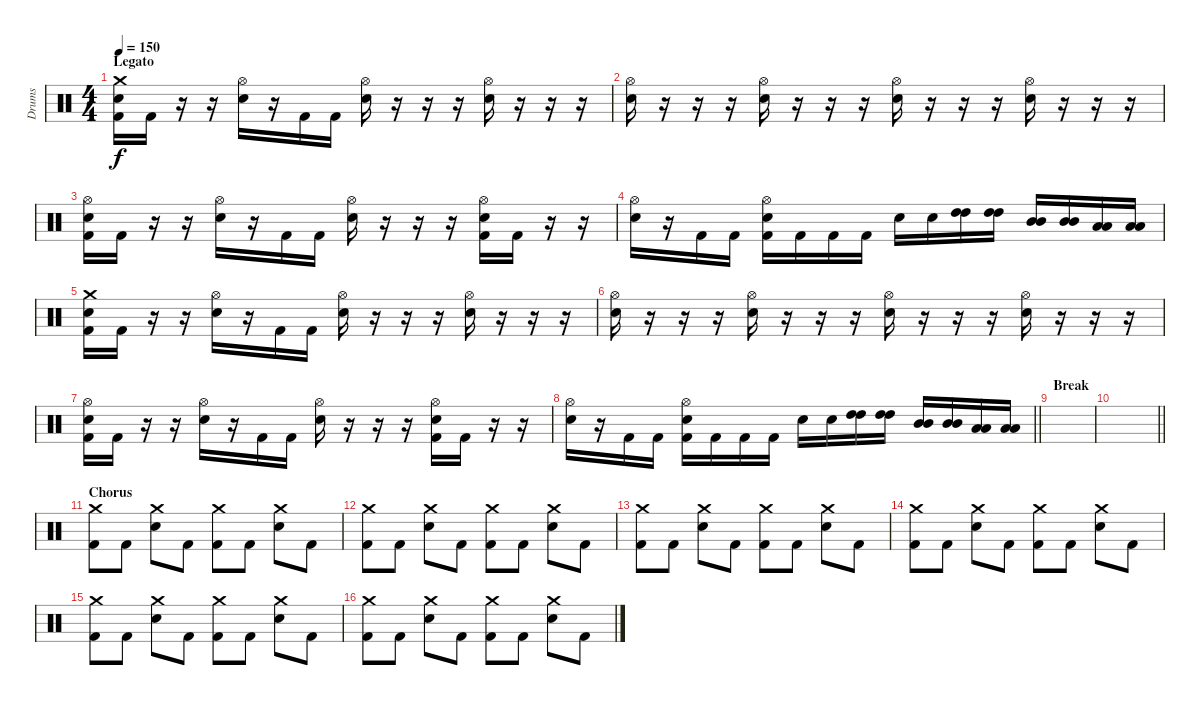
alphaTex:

\track ("Drums" "Drums") {instrument percussion}
\staff {score}
\articulation defaults
\ts (4 4)
\section ("" "Legato")
\tempo 150
\clef neutral
\ks c
("Crash medium (hit)" "Electric Snare (hit)" "Kick (hit) 2").16{dy f} "Kick (hit) 2".16 r.16 r.16 ("Hi-Hat (open)" "Electric Snare (hit)").16 r.16 "Kick (hit) 2".16 "Kick (hit) 2".16 ("Hi-Hat (open)" "Electric Snare (hit)").16 r.16 r.16 r.16 ("Hi-Hat (open)" "Electric Snare (hit)").16 r.16 r.16 r.16 |
("Hi-Hat (open)" "Electric Snare (hit)").16 r.16 r.16 r.16 ("Hi-Hat (open)" "Electric Snare (hit)").16 r.16 r.16 r.16 ("Hi-Hat (open)" "Electric Snare (hit)").16 r.16 r.16 r.16 ("Hi-Hat (open)" "Electric Snare (hit)").16 r.16 r.16 r.16 |
("Hi-Hat (open)" "Electric Snare (hit)" "Kick (hit) 2").16 "Kick (hit) 2".16 r.16 r.16 ("Hi-Hat (open)" "Electric Snare (hit)").16 r.16 "Kick (hit) 2".16 "Kick (hit) 2".16 ("Hi-Hat (open)" "Electric Snare (hit)").16 r.16 r.16 r.16 ("Hi-Hat (open)" "Electric Snare (hit)" "Kick (hit) 2").16 "Kick (hit) 2".16 r.16 r.16 |
("Hi-Hat (open)" "Electric Snare (hit)").16 r.16 "Kick (hit) 2".16 "Kick (hit) 2".16 ("Hi-Hat (open)" "Electric Snare (hit)" "Kick (hit) 2").16 "Kick (hit) 2".16 "Kick (hit) 2".16 "Kick (hit) 2".16 "Electric Snare (hit)".16 "Electric Snare (hit)".16 ("High Tom (hit)" "High Tom (hit)").16 ("High Tom (hit)" "High Tom (hit)").16 ("Mid Tom (hit)" "Mid Tom (hit)").16 ("Mid Tom (hit)" "Mid Tom (hit)").16 ("Low Tom (hit)" "Low Tom (hit)").16 ("Low Tom (hit)" "Low Tom (hit)").16 |
("Crash medium (hit)" "Electric Snare (hit)" "Kick (hit) 2").16 "Kick (hit) 2".16 r.16 r.16 ("Hi-Hat (open)" "Electric Snare (hit)").16 r.16 "Kick (hit) 2".16 "Kick (hit) 2".16 ("Hi-Hat (open)" "Electric Snare (hit)").16 r.16 r.16 r.16 ("Hi-Hat (open)" "Electric Snare (hit)").16 r.16 r.16 r.16 |
("Hi-Hat (open)" "Electric Snare (hit)").16 r.16 r.16 r.16 ("Hi-Hat (open)" "Electric Snare (hit)").16 r.16 r.16 r.16 ("Hi-Hat (open)" "Electric Snare (hit)").16 r.16 r.16 r.16 ("Hi-Hat (open)" "Electric Snare (hit)").16 r.16 r.16 r.16 |
("Hi-Hat (open)" "Electric Snare (hit)" "Kick (hit) 2").16 "Kick (hit) 2".16 r.16 r.16 ("Hi-Hat (open)" "Electric Snare (hit)").16 r.16 "Kick (hit) 2".16 "Kick (hit) 2".16 ("Hi-Hat (open)" "Electric Snare (hit)").16 r.16 r.16 r.16 ("Hi-Hat (open)" "Electric Snare (hit)" "Kick (hit) 2").16 "Kick (hit) 2".16 r.16 r.16 |
\barLineRight lightlight
("Hi-Hat (open)" "Electric Snare (hit)").16 r.16 "Kick (hit) 2".16 "Kick (hit) 2".16 ("Hi-Hat (open)" "Electric Snare (hit)" "Kick (hit) 2").16 "Kick (hit) 2".16 "Kick (hit) 2".16 "Kick (hit) 2".16 "Electric Snare (hit)".16 "Electric Snare (hit)".16 ("High Tom (hit)" "High Tom (hit)").16 ("High Tom (hit)" "High Tom (hit)").16 ("Mid Tom (hit)" "Mid Tom (hit)").16 ("Mid Tom (hit)" "Mid Tom (hit)").16 ("Low Tom (hit)" "Low Tom (hit)").16 ("Low Tom (hit)" "Low Tom (hit)").16 |
\section ("" "Break")
|
\barLineRight lightlight
|
\section ("" "Chorus")
("Crash medium (hit)" "Kick (hit) 2").8 "Kick (hit) 2".8 ("Crash medium (hit)" "Electric Snare (hit)").8 "Kick (hit) 2".8 ("Crash medium (hit)" "Kick (hit) 2").8 "Kick (hit) 2".8 ("Crash medium (hit)" "Electric Snare (hit)").8 "Kick (hit) 2".8 |
("Crash medium (hit)" "Kick (hit) 2").8 "Kick (hit) 2".8 ("Crash medium (hit)" "Electric Snare (hit)").8 "Kick (hit) 2".8 ("Crash medium (hit)" "Kick (hit) 2").8 "Kick (hit) 2".8 ("Crash medium (hit)" "Electric Snare (hit)").8 "Kick (hit) 2".8 |
("Crash medium (hit)" "Kick (hit) 2").8 "Kick (hit) 2".8 ("Crash medium (hit)" "Electric Snare (hit)").8 "Kick (hit) 2".8 ("Crash medium (hit)" "Kick (hit) 2").8 "Kick (hit) 2".8 ("Crash medium (hit)" "Electric Snare (hit)").8 "Kick (hit) 2".8 |
("Crash medium (hit)" "Kick (hit) 2").8 "Kick (hit) 2".8 ("Crash medium (hit)" "Electric Snare (hit)").8 "Kick (hit) 2".8 ("Crash medium (hit)" "Kick (hit) 2").8 "Kick (hit) 2".8 ("Crash medium (hit)" "Electric Snare (hit)").8 "Kick (hit) 2".8 |
("Crash medium (hit)" "Kick (hit) 2").8 "Kick (hit) 2".8 ("Crash medium (hit)" "Electric Snare (hit)").8 "Kick (hit) 2".8 ("Crash medium (hit)" "Kick (hit) 2").8 "Kick (hit) 2".8 ("Crash medium (hit)" "Electric Snare (hit)").8 "Kick (hit) 2".8 |
("Crash medium (hit)" "Kick (hit) 2").8 "Kick (hit) 2".8 ("Crash medium (hit)" "Electric Snare (hit)").8 "Kick (hit) 2".8 ("Crash medium (hit)" "Kick (hit) 2").8 "Kick (hit) 2".8 ("Crash medium (hit)" "Electric Snare (hit)").8 "Kick (hit) 2".8
